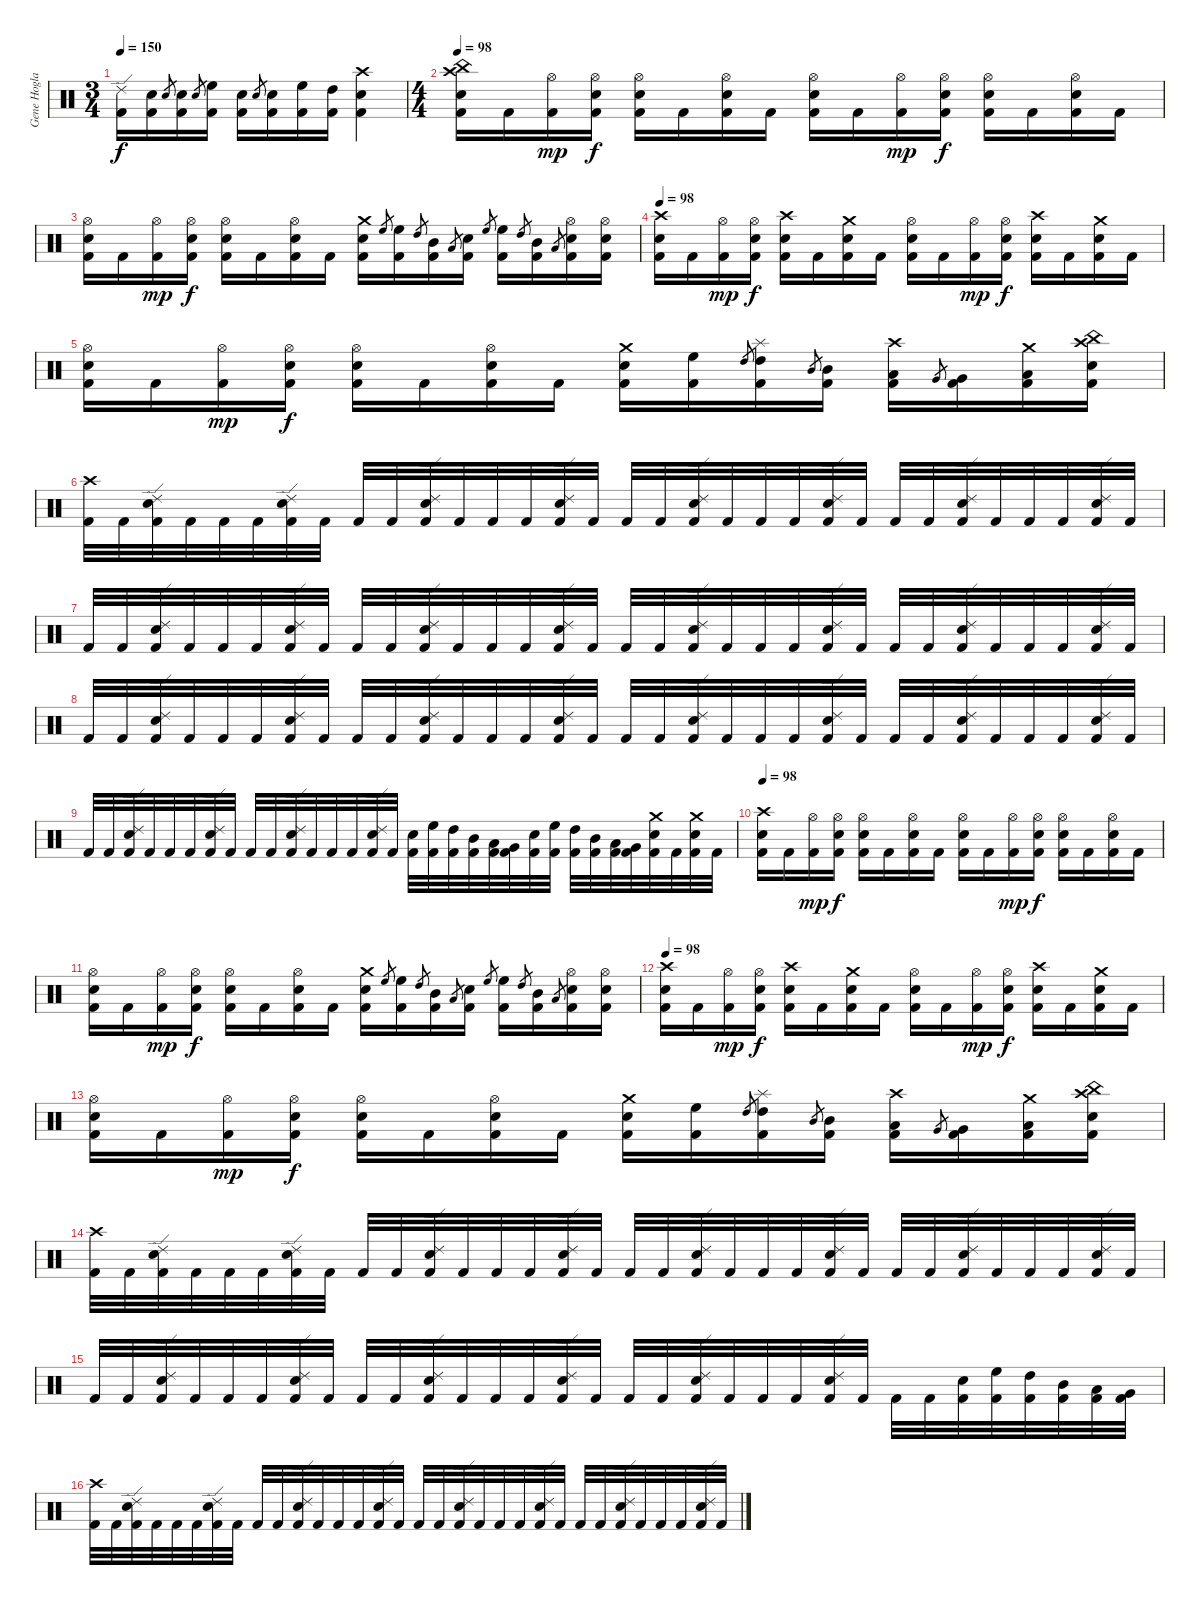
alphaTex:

\track ("Gene Hoglan" "Gene Hogla") {instrument percussion}
\staff {score}
\articulation defaults
\ts (3 4)
\tempo 150
\clef neutral
\ks c
("Kick (hit) 2" "Ride (edge) 2").16{dy f} ("Kick (hit) 2" "Electric Snare (hit)").16 "Electric Snare (hit)".8{gr} ("Kick (hit) 2" "Electric Snare (hit)").16 "Electric Snare (hit)".8{gr} ("Kick (hit) 2" "High Floor Tom (hit)").16 ("Kick (hit) 2" "Electric Snare (hit)").16 "Electric Snare (hit)".8{gr} ("Kick (hit) 2" "Electric Snare (hit)").16 ("Kick (hit) 2" "High Floor Tom (hit)").16 ("Kick (hit) 2" "High Tom (hit)").16 ("Kick (hit) 2" "Electric Snare (hit)" "Crash high (hit)").4 |
\ts (4 4)
\tempo 98
("Kick (hit) 2" "Electric Snare (hit)" "Crash high (hit)" "China (hit)").16 "Kick (hit) 2".16 ("Kick (hit) 2" "Hi-Hat (open)").16{dy mp} ("Kick (hit) 2" "Electric Snare (hit)" "Hi-Hat (open)").16{dy f} ("Kick (hit) 2" "Electric Snare (hit)" "Hi-Hat (open)").16 "Kick (hit) 2".16 ("Kick (hit) 2" "Electric Snare (hit)" "Hi-Hat (open)").16 "Kick (hit) 2".16 ("Kick (hit) 2" "Electric Snare (hit)" "Hi-Hat (open)").16 "Kick (hit) 2".16 ("Kick (hit) 2" "Hi-Hat (open)").16{dy mp} ("Kick (hit) 2" "Electric Snare (hit)" "Hi-Hat (open)").16{dy f} ("Kick (hit) 2" "Electric Snare (hit)" "Hi-Hat (open)").16 "Kick (hit) 2".16 ("Kick (hit) 2" "Electric Snare (hit)" "Hi-Hat (open)").16 "Kick (hit) 2".16 |
("Kick (hit) 2" "Electric Snare (hit)" "Hi-Hat (open)").16 "Kick (hit) 2".16 ("Kick (hit) 2" "Hi-Hat (open)").16{dy mp} ("Kick (hit) 2" "Electric Snare (hit)" "Hi-Hat (open)").16{dy f} ("Kick (hit) 2" "Electric Snare (hit)" "Hi-Hat (open)").16 "Kick (hit) 2".16 ("Kick (hit) 2" "Electric Snare (hit)" "Hi-Hat (open)").16 "Kick (hit) 2".16 ("Kick (hit) 2" "Electric Snare (hit)" "Crash medium (hit)").16 "High Floor Tom (hit)".8{gr} ("Kick (hit) 2" "High Floor Tom (hit)").16 "High Tom (hit)".8{gr} ("Kick (hit) 2" "Mid Tom (hit)").16 "Low Tom (hit)".8{gr} ("Kick (hit) 2" "Electric Snare (hit)").16 "High Floor Tom (hit)".8{gr} ("Kick (hit) 2" "High Floor Tom (hit)").16 "High Tom (hit)".8{gr} ("Kick (hit) 2" "Mid Tom (hit)").16 "Low Tom (hit)".8{gr} ("Kick (hit) 2" "Electric Snare (hit)" "Hi-Hat (open)").16 ("Kick (hit) 2" "Electric Snare (hit)" "Hi-Hat (open)").16 |
\tempo 98
("Kick (hit) 2" "Electric Snare (hit)" "Crash high (hit)").16 "Kick (hit) 2".16 ("Kick (hit) 2" "Hi-Hat (open)").16{dy mp} ("Kick (hit) 2" "Electric Snare (hit)" "Hi-Hat (open)").16{dy f} ("Kick (hit) 2" "Electric Snare (hit)" "Crash high (hit)").16 "Kick (hit) 2".16 ("Kick (hit) 2" "Electric Snare (hit)" "Crash medium (hit)").16 "Kick (hit) 2".16 ("Kick (hit) 2" "Electric Snare (hit)" "Hi-Hat (open)").16 "Kick (hit) 2".16 ("Kick (hit) 2" "Hi-Hat (open)").16{dy mp} ("Kick (hit) 2" "Electric Snare (hit)" "Hi-Hat (open)").16{dy f} ("Kick (hit) 2" "Electric Snare (hit)" "Crash high (hit)").16 "Kick (hit) 2".16 ("Kick (hit) 2" "Electric Snare (hit)" "Crash medium (hit)").16 "Kick (hit) 2".16 |
("Kick (hit) 2" "Electric Snare (hit)" "Hi-Hat (open)").16 "Kick (hit) 2".16 ("Kick (hit) 2" "Hi-Hat (open)").16{dy mp} ("Kick (hit) 2" "Electric Snare (hit)" "Hi-Hat (open)").16{dy f} ("Kick (hit) 2" "Electric Snare (hit)" "Hi-Hat (open)").16 "Kick (hit) 2".16 ("Kick (hit) 2" "Electric Snare (hit)" "Hi-Hat (open)").16 "Kick (hit) 2".16 ("Kick (hit) 2" "Electric Snare (hit)" "Crash medium (hit)").16 ("Kick (hit) 2" "High Floor Tom (hit)").16 "High Tom (hit)".8{gr} ("Kick (hit) 2" "High Tom (hit)" "Splash (hit)").16 "Mid Tom (hit)".8{gr} ("Kick (hit) 2" "Mid Tom (hit)").16 ("Kick (hit) 2" "Low Tom (hit)" "Crash high (hit)").16 "Very Low Tom (hit)".8{gr} ("Kick (hit) 2" "Very Low Tom (hit)").16 ("Kick (hit) 2" "Low Floor Tom (hit)" "Crash medium (hit)").16 ("Kick (hit) 2" "Electric Snare (hit)" "Crash high (hit)" "China (hit)").16 |
("Kick (hit) 2" "Crash high (hit)").32 "Kick (hit) 2".32 ("Kick (hit) 2" "Electric Snare (hit)" "Ride (edge) 2").32 "Kick (hit) 2".32 "Kick (hit) 2".32 "Kick (hit) 2".32 ("Kick (hit) 2" "Electric Snare (hit)" "Ride (edge) 2").32 "Kick (hit) 2".32 "Kick (hit) 2".32 "Kick (hit) 2".32 ("Kick (hit) 2" "Electric Snare (hit)" "Ride (edge) 2").32 "Kick (hit) 2".32 "Kick (hit) 2".32 "Kick (hit) 2".32 ("Kick (hit) 2" "Electric Snare (hit)" "Ride (edge) 2").32 "Kick (hit) 2".32 "Kick (hit) 2".32 "Kick (hit) 2".32 ("Kick (hit) 2" "Electric Snare (hit)" "Ride (edge) 2").32 "Kick (hit) 2".32 "Kick (hit) 2".32 "Kick (hit) 2".32 ("Kick (hit) 2" "Electric Snare (hit)" "Ride (edge) 2").32 "Kick (hit) 2".32 "Kick (hit) 2".32 "Kick (hit) 2".32 ("Kick (hit) 2" "Electric Snare (hit)" "Ride (edge) 2").32 "Kick (hit) 2".32 "Kick (hit) 2".32 "Kick (hit) 2".32 ("Kick (hit) 2" "Electric Snare (hit)" "Ride (edge) 2").32 "Kick (hit) 2".32 |
"Kick (hit) 2".32 "Kick (hit) 2".32 ("Kick (hit) 2" "Electric Snare (hit)" "Ride (edge) 2").32 "Kick (hit) 2".32 "Kick (hit) 2".32 "Kick (hit) 2".32 ("Kick (hit) 2" "Electric Snare (hit)" "Ride (edge) 2").32 "Kick (hit) 2".32 "Kick (hit) 2".32 "Kick (hit) 2".32 ("Kick (hit) 2" "Electric Snare (hit)" "Ride (edge) 2").32 "Kick (hit) 2".32 "Kick (hit) 2".32 "Kick (hit) 2".32 ("Kick (hit) 2" "Electric Snare (hit)" "Ride (edge) 2").32 "Kick (hit) 2".32 "Kick (hit) 2".32 "Kick (hit) 2".32 ("Kick (hit) 2" "Electric Snare (hit)" "Ride (edge) 2").32 "Kick (hit) 2".32 "Kick (hit) 2".32 "Kick (hit) 2".32 ("Kick (hit) 2" "Electric Snare (hit)" "Ride (edge) 2").32 "Kick (hit) 2".32 "Kick (hit) 2".32 "Kick (hit) 2".32 ("Kick (hit) 2" "Electric Snare (hit)" "Ride (edge) 2").32 "Kick (hit) 2".32 "Kick (hit) 2".32 "Kick (hit) 2".32 ("Kick (hit) 2" "Electric Snare (hit)" "Ride (edge) 2").32 "Kick (hit) 2".32 |
"Kick (hit) 2".32 "Kick (hit) 2".32 ("Kick (hit) 2" "Electric Snare (hit)" "Ride (edge) 2").32 "Kick (hit) 2".32 "Kick (hit) 2".32 "Kick (hit) 2".32 ("Kick (hit) 2" "Electric Snare (hit)" "Ride (edge) 2").32 "Kick (hit) 2".32 "Kick (hit) 2".32 "Kick (hit) 2".32 ("Kick (hit) 2" "Electric Snare (hit)" "Ride (edge) 2").32 "Kick (hit) 2".32 "Kick (hit) 2".32 "Kick (hit) 2".32 ("Kick (hit) 2" "Electric Snare (hit)" "Ride (edge) 2").32 "Kick (hit) 2".32 "Kick (hit) 2".32 "Kick (hit) 2".32 ("Kick (hit) 2" "Electric Snare (hit)" "Ride (edge) 2").32 "Kick (hit) 2".32 "Kick (hit) 2".32 "Kick (hit) 2".32 ("Kick (hit) 2" "Electric Snare (hit)" "Ride (edge) 2").32 "Kick (hit) 2".32 "Kick (hit) 2".32 "Kick (hit) 2".32 ("Kick (hit) 2" "Electric Snare (hit)" "Ride (edge) 2").32 "Kick (hit) 2".32 "Kick (hit) 2".32 "Kick (hit) 2".32 ("Kick (hit) 2" "Electric Snare (hit)" "Ride (edge) 2").32 "Kick (hit) 2".32 |
"Kick (hit) 2".32 "Kick (hit) 2".32 ("Kick (hit) 2" "Electric Snare (hit)" "Ride (edge) 2").32 "Kick (hit) 2".32 "Kick (hit) 2".32 "Kick (hit) 2".32 ("Kick (hit) 2" "Electric Snare (hit)" "Ride (edge) 2").32 "Kick (hit) 2".32 "Kick (hit) 2".32 "Kick (hit) 2".32 ("Kick (hit) 2" "Electric Snare (hit)" "Ride (edge) 2").32 "Kick (hit) 2".32 "Kick (hit) 2".32 "Kick (hit) 2".32 ("Kick (hit) 2" "Electric Snare (hit)" "Ride (edge) 2").32 "Kick (hit) 2".32 ("Kick (hit) 2" "Electric Snare (hit)").32 ("Kick (hit) 2" "High Floor Tom (hit)").32 ("Kick (hit) 2" "High Tom (hit)").32 ("Kick (hit) 2" "Mid Tom (hit)").32 ("Kick (hit) 2" "Low Tom (hit)").32 ("Kick (hit) 2" "Very Low Tom (hit)").32 ("Kick (hit) 2" "Electric Snare (hit)").32 ("Kick (hit) 2" "High Floor Tom (hit)").32 ("Kick (hit) 2" "High Tom (hit)").32 ("Kick (hit) 2" "Mid Tom (hit)").32 ("Kick (hit) 2" "Low Tom (hit)").32 ("Kick (hit) 2" "Very Low Tom (hit)").32 ("Kick (hit) 2" "Electric Snare (hit)" "Crash medium (hit)").32 "Kick (hit) 2".32 ("Kick (hit) 2" "Electric Snare (hit)" "Crash medium (hit)").32 "Kick (hit) 2".32 |
\tempo 98
("Kick (hit) 2" "Electric Snare (hit)" "Crash high (hit)").16 "Kick (hit) 2".16 ("Kick (hit) 2" "Hi-Hat (open)").16{dy mp} ("Kick (hit) 2" "Electric Snare (hit)" "Hi-Hat (open)").16{dy f} ("Kick (hit) 2" "Electric Snare (hit)" "Hi-Hat (open)").16 "Kick (hit) 2".16 ("Kick (hit) 2" "Electric Snare (hit)" "Hi-Hat (open)").16 "Kick (hit) 2".16 ("Kick (hit) 2" "Electric Snare (hit)" "Hi-Hat (open)").16 "Kick (hit) 2".16 ("Kick (hit) 2" "Hi-Hat (open)").16{dy mp} ("Kick (hit) 2" "Electric Snare (hit)" "Hi-Hat (open)").16{dy f} ("Kick (hit) 2" "Electric Snare (hit)" "Hi-Hat (open)").16 "Kick (hit) 2".16 ("Kick (hit) 2" "Electric Snare (hit)" "Hi-Hat (open)").16 "Kick (hit) 2".16 |
("Kick (hit) 2" "Electric Snare (hit)" "Hi-Hat (open)").16 "Kick (hit) 2".16 ("Kick (hit) 2" "Hi-Hat (open)").16{dy mp} ("Kick (hit) 2" "Electric Snare (hit)" "Hi-Hat (open)").16{dy f} ("Kick (hit) 2" "Electric Snare (hit)" "Hi-Hat (open)").16 "Kick (hit) 2".16 ("Kick (hit) 2" "Electric Snare (hit)" "Hi-Hat (open)").16 "Kick (hit) 2".16 ("Kick (hit) 2" "Electric Snare (hit)" "Crash medium (hit)").16 "High Floor Tom (hit)".8{gr} ("Kick (hit) 2" "High Floor Tom (hit)").16 "High Tom (hit)".8{gr} ("Kick (hit) 2" "Mid Tom (hit)").16 "Low Tom (hit)".8{gr} ("Kick (hit) 2" "Electric Snare (hit)").16 "High Floor Tom (hit)".8{gr} ("Kick (hit) 2" "High Floor Tom (hit)").16 "High Tom (hit)".8{gr} ("Kick (hit) 2" "Mid Tom (hit)").16 "Low Tom (hit)".8{gr} ("Kick (hit) 2" "Electric Snare (hit)" "Hi-Hat (open)").16 ("Kick (hit) 2" "Electric Snare (hit)" "Hi-Hat (open)").16 |
\tempo 98
("Kick (hit) 2" "Electric Snare (hit)" "Crash high (hit)").16 "Kick (hit) 2".16 ("Kick (hit) 2" "Hi-Hat (open)").16{dy mp} ("Kick (hit) 2" "Electric Snare (hit)" "Hi-Hat (open)").16{dy f} ("Kick (hit) 2" "Electric Snare (hit)" "Crash high (hit)").16 "Kick (hit) 2".16 ("Kick (hit) 2" "Electric Snare (hit)" "Crash medium (hit)").16 "Kick (hit) 2".16 ("Kick (hit) 2" "Electric Snare (hit)" "Hi-Hat (open)").16 "Kick (hit) 2".16 ("Kick (hit) 2" "Hi-Hat (open)").16{dy mp} ("Kick (hit) 2" "Electric Snare (hit)" "Hi-Hat (open)").16{dy f} ("Kick (hit) 2" "Electric Snare (hit)" "Crash high (hit)").16 "Kick (hit) 2".16 ("Kick (hit) 2" "Electric Snare (hit)" "Crash medium (hit)").16 "Kick (hit) 2".16 |
("Kick (hit) 2" "Electric Snare (hit)" "Hi-Hat (open)").16 "Kick (hit) 2".16 ("Kick (hit) 2" "Hi-Hat (open)").16{dy mp} ("Kick (hit) 2" "Electric Snare (hit)" "Hi-Hat (open)").16{dy f} ("Kick (hit) 2" "Electric Snare (hit)" "Hi-Hat (open)").16 "Kick (hit) 2".16 ("Kick (hit) 2" "Electric Snare (hit)" "Hi-Hat (open)").16 "Kick (hit) 2".16 ("Kick (hit) 2" "Electric Snare (hit)" "Crash medium (hit)").16 ("Kick (hit) 2" "High Floor Tom (hit)").16 "High Tom (hit)".8{gr} ("Kick (hit) 2" "High Tom (hit)" "Splash (hit)").16 "Mid Tom (hit)".8{gr} ("Kick (hit) 2" "Mid Tom (hit)").16 ("Kick (hit) 2" "Low Tom (hit)" "Crash high (hit)").16 "Very Low Tom (hit)".8{gr} ("Kick (hit) 2" "Very Low Tom (hit)").16 ("Kick (hit) 2" "Low Floor Tom (hit)" "Crash medium (hit)").16 ("Kick (hit) 2" "Electric Snare (hit)" "Crash high (hit)" "China (hit)").16 |
("Kick (hit) 2" "Crash high (hit)").32 "Kick (hit) 2".32 ("Kick (hit) 2" "Electric Snare (hit)" "Ride (edge) 2").32 "Kick (hit) 2".32 "Kick (hit) 2".32 "Kick (hit) 2".32 ("Kick (hit) 2" "Electric Snare (hit)" "Ride (edge) 2").32 "Kick (hit) 2".32 "Kick (hit) 2".32 "Kick (hit) 2".32 ("Kick (hit) 2" "Electric Snare (hit)" "Ride (edge) 2").32 "Kick (hit) 2".32 "Kick (hit) 2".32 "Kick (hit) 2".32 ("Kick (hit) 2" "Electric Snare (hit)" "Ride (edge) 2").32 "Kick (hit) 2".32 "Kick (hit) 2".32 "Kick (hit) 2".32 ("Kick (hit) 2" "Electric Snare (hit)" "Ride (edge) 2").32 "Kick (hit) 2".32 "Kick (hit) 2".32 "Kick (hit) 2".32 ("Kick (hit) 2" "Electric Snare (hit)" "Ride (edge) 2").32 "Kick (hit) 2".32 "Kick (hit) 2".32 "Kick (hit) 2".32 ("Kick (hit) 2" "Electric Snare (hit)" "Ride (edge) 2").32 "Kick (hit) 2".32 "Kick (hit) 2".32 "Kick (hit) 2".32 ("Kick (hit) 2" "Electric Snare (hit)" "Ride (edge) 2").32 "Kick (hit) 2".32 |
"Kick (hit) 2".32 "Kick (hit) 2".32 ("Kick (hit) 2" "Electric Snare (hit)" "Ride (edge) 2").32 "Kick (hit) 2".32 "Kick (hit) 2".32 "Kick (hit) 2".32 ("Kick (hit) 2" "Electric Snare (hit)" "Ride (edge) 2").32 "Kick (hit) 2".32 "Kick (hit) 2".32 "Kick (hit) 2".32 ("Kick (hit) 2" "Electric Snare (hit)" "Ride (edge) 2").32 "Kick (hit) 2".32 "Kick (hit) 2".32 "Kick (hit) 2".32 ("Kick (hit) 2" "Electric Snare (hit)" "Ride (edge) 2").32 "Kick (hit) 2".32 "Kick (hit) 2".32 "Kick (hit) 2".32 ("Kick (hit) 2" "Electric Snare (hit)" "Ride (edge) 2").32 "Kick (hit) 2".32 "Kick (hit) 2".32 "Kick (hit) 2".32 ("Kick (hit) 2" "Electric Snare (hit)" "Ride (edge) 2").32 "Kick (hit) 2".32 "Kick (hit) 2".32 "Kick (hit) 2".32 ("Kick (hit) 2" "Electric Snare (hit)").32 ("Kick (hit) 2" "High Floor Tom (hit)").32 ("Kick (hit) 2" "High Tom (hit)").32 ("Kick (hit) 2" "Mid Tom (hit)").32 ("Kick (hit) 2" "Low Tom (hit)").32 ("Kick (hit) 2" "Very Low Tom (hit)").32 |
("Kick (hit) 2" "Crash high (hit)").32 "Kick (hit) 2".32 ("Kick (hit) 2" "Electric Snare (hit)" "Ride (edge) 2").32 "Kick (hit) 2".32 "Kick (hit) 2".32 "Kick (hit) 2".32 ("Kick (hit) 2" "Electric Snare (hit)" "Ride (edge) 2").32 "Kick (hit) 2".32 "Kick (hit) 2".32 "Kick (hit) 2".32 ("Kick (hit) 2" "Electric Snare (hit)" "Ride (edge) 2").32 "Kick (hit) 2".32 "Kick (hit) 2".32 "Kick (hit) 2".32 ("Kick (hit) 2" "Electric Snare (hit)" "Ride (edge) 2").32 "Kick (hit) 2".32 "Kick (hit) 2".32 "Kick (hit) 2".32 ("Kick (hit) 2" "Electric Snare (hit)" "Ride (edge) 2").32 "Kick (hit) 2".32 "Kick (hit) 2".32 "Kick (hit) 2".32 ("Kick (hit) 2" "Electric Snare (hit)" "Ride (edge) 2").32 "Kick (hit) 2".32 "Kick (hit) 2".32 "Kick (hit) 2".32 ("Kick (hit) 2" "Electric Snare (hit)" "Ride (edge) 2").32 "Kick (hit) 2".32 "Kick (hit) 2".32 "Kick (hit) 2".32 ("Kick (hit) 2" "Electric Snare (hit)" "Ride (edge) 2").32 "Kick (hit) 2".32
